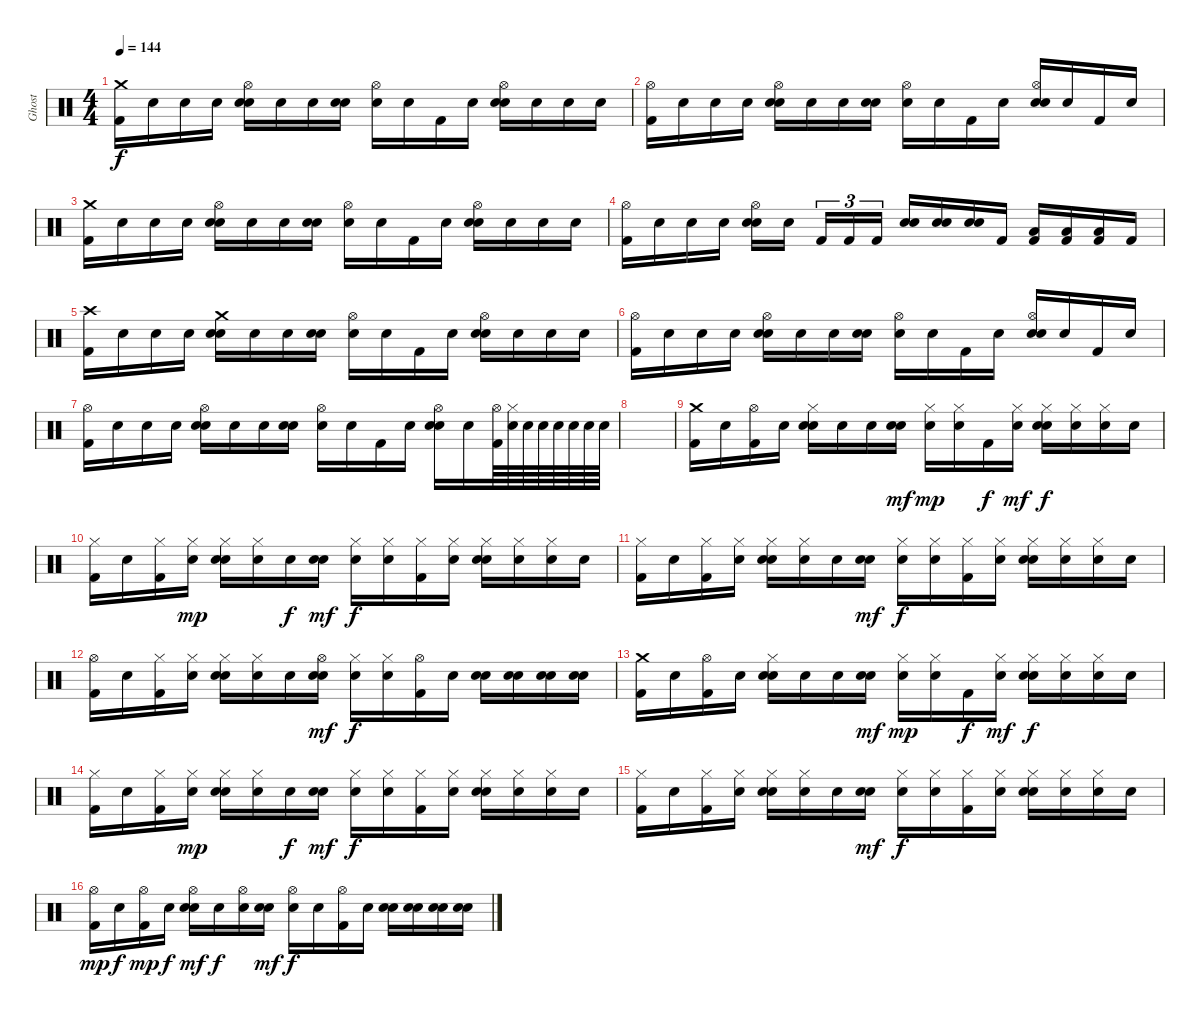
\track ("Ghost" "Ghost") {instrument percussion}
\staff {score}
\articulation defaults
\ts (4 4)
\tempo 144
\clef neutral
\ks c
("Crash medium (hit)" "Kick (hit) 2").16{dy f} "Snare (hit)".16 "Snare (hit)".16 "Snare (hit)".16 ("Hi-Hat (open)" "Electric Snare (hit)" "Snare (hit)").16 "Snare (hit)".16 "Snare (hit)".16 ("Electric Snare (hit)" "Snare (hit)").16 ("Hi-Hat (open)" "Snare (hit)").16 "Snare (hit)".16 "Kick (hit) 2".16 "Snare (hit)".16 ("Hi-Hat (open)" "Electric Snare (hit)" "Snare (hit)").16 "Snare (hit)".16 "Snare (hit)".16 "Snare (hit)".16 |
("Hi-Hat (open)" "Kick (hit) 2").16 "Snare (hit)".16 "Snare (hit)".16 "Snare (hit)".16 ("Hi-Hat (open)" "Electric Snare (hit)" "Snare (hit)").16 "Snare (hit)".16 "Snare (hit)".16 ("Electric Snare (hit)" "Snare (hit)").16 ("Hi-Hat (open)" "Snare (hit)").16 "Snare (hit)".16 "Kick (hit) 2".16 "Snare (hit)".16 ("Hi-Hat (open)" "Electric Snare (hit)" "Snare (hit)").16 "Snare (hit)".16 "Kick (hit) 2".16 "Snare (hit)".16 |
("Crash medium (hit)" "Kick (hit) 2").16 "Snare (hit)".16 "Snare (hit)".16 "Snare (hit)".16 ("Hi-Hat (open)" "Electric Snare (hit)" "Snare (hit)").16 "Snare (hit)".16 "Snare (hit)".16 ("Electric Snare (hit)" "Snare (hit)").16 ("Hi-Hat (open)" "Snare (hit)").16 "Snare (hit)".16 "Kick (hit) 2".16 "Snare (hit)".16 ("Hi-Hat (open)" "Electric Snare (hit)" "Snare (hit)").16 "Snare (hit)".16 "Snare (hit)".16 "Snare (hit)".16 |
("Hi-Hat (open)" "Kick (hit) 2").16 "Snare (hit)".16 "Snare (hit)".16 "Snare (hit)".16 ("Hi-Hat (open)" "Electric Snare (hit)" "Snare (hit)").16 "Snare (hit)".16{beam splitsecondary} "Kick (hit) 2".16{tu (3 2)} "Kick (hit) 2".16{tu (3 2)} "Kick (hit) 2".16{tu (3 2)} ("Electric Snare (hit)" "Snare (hit)").16 ("Electric Snare (hit)" "Snare (hit)").16 ("Electric Snare (hit)" "Snare (hit)").16 "Kick (hit) 2".16 ("Low Tom (hit)" "Kick (hit) 2").16 ("Low Tom (hit)" "Kick (hit) 2").16 ("Low Tom (hit)" "Kick (hit) 2").16 "Kick (hit) 2".16 |
("Crash high (hit)" "Kick (hit) 2").16 "Snare (hit)".16 "Snare (hit)".16 "Snare (hit)".16 ("Crash medium (hit)" "Electric Snare (hit)" "Snare (hit)").16 "Snare (hit)".16 "Snare (hit)".16 ("Electric Snare (hit)" "Snare (hit)").16 ("Hi-Hat (open)" "Snare (hit)").16 "Snare (hit)".16 "Kick (hit) 2".16 "Snare (hit)".16 ("Hi-Hat (open)" "Electric Snare (hit)" "Snare (hit)").16 "Snare (hit)".16 "Snare (hit)".16 "Snare (hit)".16 |
("Hi-Hat (open)" "Kick (hit) 2").16 "Snare (hit)".16 "Snare (hit)".16 "Snare (hit)".16 ("Hi-Hat (open)" "Electric Snare (hit)" "Snare (hit)").16 "Snare (hit)".16 "Snare (hit)".16 ("Electric Snare (hit)" "Snare (hit)").16 ("Hi-Hat (open)" "Snare (hit)").16 "Snare (hit)".16 "Kick (hit) 2".16 "Snare (hit)".16 ("Hi-Hat (open)" "Electric Snare (hit)" "Snare (hit)").16 "Snare (hit)".16 "Kick (hit) 2".16 "Snare (hit)".16 |
("Hi-Hat (open)" "Kick (hit) 2").16 "Snare (hit)".16 "Snare (hit)".16 "Snare (hit)".16 ("Hi-Hat (open)" "Electric Snare (hit)" "Snare (hit)").16 "Snare (hit)".16 "Snare (hit)".16 ("Electric Snare (hit)" "Snare (hit)").16 ("Hi-Hat (open)" "Snare (hit)").16 "Snare (hit)".16 "Kick (hit) 2".16 "Snare (hit)".16 ("Hi-Hat (open)" "Electric Snare (hit)" "Snare (hit)").16 "Snare (hit)".16 ("Hi-Hat (open)" "Kick (hit) 2").64 ("Hi-Hat (closed)" "Snare (hit)").64 "Snare (hit)".64 "Snare (hit)".64 "Snare (hit)".64 "Snare (hit)".64 "Snare (hit)".64 "Snare (hit)".64 |
|
("Crash medium (hit)" "Kick (hit) 2").16 "Snare (hit)".16 ("Hi-Hat (open)" "Kick (hit) 2").16 "Snare (hit)".16 ("Hi-Hat (closed)" "Electric Snare (hit)" "Snare (hit)").16 "Snare (hit)".16 "Snare (hit)".16 ("Electric Snare (hit)" "Snare (hit)").16{dy mf} ("Hi-Hat (closed)" "Snare (hit)").16{dy mp} ("Hi-Hat (closed)" "Snare (hit)").16 "Kick (hit) 2".16{dy f} ("Hi-Hat (closed)" "Snare (hit)").16{dy mf} ("Hi-Hat (closed)" "Electric Snare (hit)" "Snare (hit)").16{dy f} ("Hi-Hat (closed)" "Snare (hit)").16 ("Hi-Hat (closed)" "Snare (hit)").16 "Snare (hit)".16 |
("Hi-Hat (closed)" "Kick (hit) 2").16 "Snare (hit)".16 ("Hi-Hat (closed)" "Kick (hit) 2").16 ("Hi-Hat (closed)" "Snare (hit)").16{dy mp} ("Hi-Hat (closed)" "Electric Snare (hit)" "Snare (hit)").16 ("Hi-Hat (closed)" "Snare (hit)").16 "Snare (hit)".16{dy f} ("Electric Snare (hit)" "Snare (hit)").16{dy mf} ("Hi-Hat (closed)" "Snare (hit)").16{dy f} ("Hi-Hat (closed)" "Snare (hit)").16 ("Hi-Hat (closed)" "Kick (hit) 2").16 ("Hi-Hat (closed)" "Snare (hit)").16 ("Hi-Hat (closed)" "Electric Snare (hit)" "Snare (hit)").16 ("Hi-Hat (closed)" "Snare (hit)").16 ("Hi-Hat (closed)" "Snare (hit)").16 "Snare (hit)".16 |
("Hi-Hat (closed)" "Kick (hit) 2").16 "Snare (hit)".16 ("Hi-Hat (closed)" "Kick (hit) 2").16 ("Hi-Hat (closed)" "Snare (hit)").16 ("Hi-Hat (closed)" "Electric Snare (hit)" "Snare (hit)").16 ("Hi-Hat (closed)" "Snare (hit)").16 "Snare (hit)".16 ("Electric Snare (hit)" "Snare (hit)").16{dy mf} ("Hi-Hat (closed)" "Snare (hit)").16{dy f} ("Hi-Hat (closed)" "Snare (hit)").16 ("Hi-Hat (closed)" "Kick (hit) 2").16 ("Hi-Hat (closed)" "Snare (hit)").16 ("Hi-Hat (closed)" "Electric Snare (hit)" "Snare (hit)").16 ("Hi-Hat (closed)" "Snare (hit)").16 ("Hi-Hat (closed)" "Snare (hit)").16 "Snare (hit)".16 |
("Hi-Hat (open)" "Kick (hit) 2").16 "Snare (hit)".16 ("Hi-Hat (closed)" "Kick (hit) 2").16 ("Hi-Hat (closed)" "Snare (hit)").16 ("Hi-Hat (closed)" "Electric Snare (hit)" "Snare (hit)").16 ("Hi-Hat (closed)" "Snare (hit)").16 "Snare (hit)".16 ("Hi-Hat (open)" "Electric Snare (hit)" "Snare (hit)").16{dy mf} ("Hi-Hat (closed)" "Snare (hit)").16{dy f} ("Hi-Hat (closed)" "Snare (hit)").16 ("Hi-Hat (open)" "Kick (hit) 2").16 "Snare (hit)".16 ("Electric Snare (hit)" "Snare (hit)").16 ("Electric Snare (hit)" "Snare (hit)").16 ("Electric Snare (hit)" "Snare (hit)").16 ("Electric Snare (hit)" "Snare (hit)").16 |
("Crash medium (hit)" "Kick (hit) 2").16 "Snare (hit)".16 ("Hi-Hat (open)" "Kick (hit) 2").16 "Snare (hit)".16 ("Hi-Hat (closed)" "Electric Snare (hit)" "Snare (hit)").16 "Snare (hit)".16 "Snare (hit)".16 ("Electric Snare (hit)" "Snare (hit)").16{dy mf} ("Hi-Hat (closed)" "Snare (hit)").16{dy mp} ("Hi-Hat (closed)" "Snare (hit)").16 "Kick (hit) 2".16{dy f} ("Hi-Hat (closed)" "Snare (hit)").16{dy mf} ("Hi-Hat (closed)" "Electric Snare (hit)" "Snare (hit)").16{dy f} ("Hi-Hat (closed)" "Snare (hit)").16 ("Hi-Hat (closed)" "Snare (hit)").16 "Snare (hit)".16 |
("Hi-Hat (closed)" "Kick (hit) 2").16 "Snare (hit)".16 ("Hi-Hat (closed)" "Kick (hit) 2").16 ("Hi-Hat (closed)" "Snare (hit)").16{dy mp} ("Hi-Hat (closed)" "Electric Snare (hit)" "Snare (hit)").16 ("Hi-Hat (closed)" "Snare (hit)").16 "Snare (hit)".16{dy f} ("Electric Snare (hit)" "Snare (hit)").16{dy mf} ("Hi-Hat (closed)" "Snare (hit)").16{dy f} ("Hi-Hat (closed)" "Snare (hit)").16 ("Hi-Hat (closed)" "Kick (hit) 2").16 ("Hi-Hat (closed)" "Snare (hit)").16 ("Hi-Hat (closed)" "Electric Snare (hit)" "Snare (hit)").16 ("Hi-Hat (closed)" "Snare (hit)").16 ("Hi-Hat (closed)" "Snare (hit)").16 "Snare (hit)".16 |
("Hi-Hat (closed)" "Kick (hit) 2").16 "Snare (hit)".16 ("Hi-Hat (closed)" "Kick (hit) 2").16 ("Hi-Hat (closed)" "Snare (hit)").16 ("Hi-Hat (closed)" "Electric Snare (hit)" "Snare (hit)").16 ("Hi-Hat (closed)" "Snare (hit)").16 "Snare (hit)".16 ("Electric Snare (hit)" "Snare (hit)").16{dy mf} ("Hi-Hat (closed)" "Snare (hit)").16{dy f} ("Hi-Hat (closed)" "Snare (hit)").16 ("Hi-Hat (closed)" "Kick (hit) 2").16 ("Hi-Hat (closed)" "Snare (hit)").16 ("Hi-Hat (closed)" "Electric Snare (hit)" "Snare (hit)").16 ("Hi-Hat (closed)" "Snare (hit)").16 ("Hi-Hat (closed)" "Snare (hit)").16 "Snare (hit)".16 |
("Hi-Hat (open)" "Kick (hit) 2").16{dy mp} "Snare (hit)".16{dy f} ("Hi-Hat (open)" "Kick (hit) 2").16{dy mp} "Snare (hit)".16{dy f} ("Hi-Hat (open)" "Electric Snare (hit)" "Snare (hit)").16{dy mf} "Snare (hit)".16{dy f} ("Hi-Hat (open)" "Snare (hit)").16 ("Electric Snare (hit)" "Snare (hit)").16{dy mf} ("Hi-Hat (open)" "Snare (hit)").16{dy f} "Snare (hit)".16 ("Hi-Hat (open)" "Kick (hit) 2").16 "Snare (hit)".16 ("Electric Snare (hit)" "Snare (hit)").16 ("Electric Snare (hit)" "Snare (hit)").16 ("Electric Snare (hit)" "Snare (hit)").16 ("Electric Snare (hit)" "Snare (hit)").16
